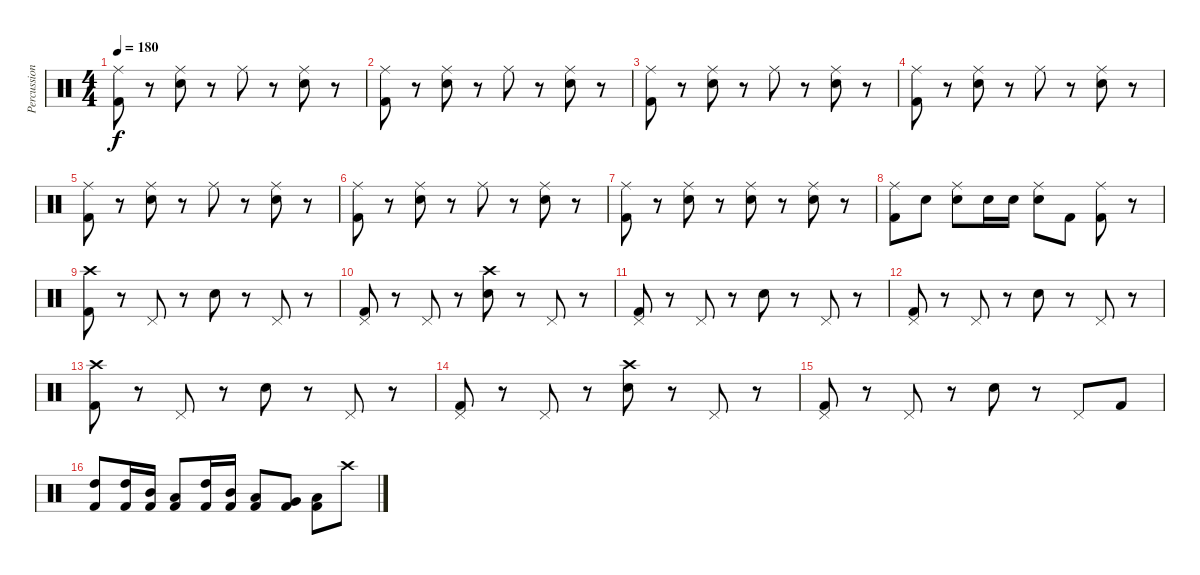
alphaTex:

\track ("Percussion" "Percussion") {instrument percussion}
\staff {score}
\articulation defaults
\ts (4 4)
\tempo 180
\clef neutral
\ks c
("Ride (middle)" "Kick (hit) 2").8{dy f} r.8 ("Ride (middle)" "Snare (hit) 2").8 r.8 "Ride (middle)".8 r.8 ("Ride (middle)" "Snare (hit) 2").8 r.8 |
("Ride (middle)" "Kick (hit) 2").8 r.8 ("Ride (middle)" "Snare (hit) 2").8 r.8 "Ride (middle)".8 r.8 ("Ride (middle)" "Snare (hit) 2").8 r.8 |
("Ride (middle)" "Kick (hit) 2").8 r.8 ("Ride (middle)" "Snare (hit) 2").8 r.8 "Ride (middle)".8 r.8 ("Ride (middle)" "Snare (hit) 2").8 r.8 |
("Ride (middle)" "Kick (hit) 2").8 r.8 ("Ride (middle)" "Snare (hit) 2").8 r.8 "Ride (middle)".8 r.8 ("Ride (middle)" "Snare (hit) 2").8 r.8 |
("Ride (middle)" "Kick (hit) 2").8 r.8 ("Ride (middle)" "Snare (hit) 2").8 r.8 "Ride (middle)".8 r.8 ("Ride (middle)" "Snare (hit) 2").8 r.8 |
("Ride (middle)" "Kick (hit) 2").8 r.8 ("Ride (middle)" "Snare (hit) 2").8 r.8 "Ride (middle)".8 r.8 ("Ride (middle)" "Snare (hit) 2").8 r.8 |
("Ride (middle)" "Kick (hit) 2").8 r.8 ("Ride (middle)" "Snare (hit) 2").8 r.8 ("Ride (middle)" "Snare (hit) 2").8 r.8 ("Ride (middle)" "Snare (hit) 2").8 r.8 |
("Ride (middle)" "Kick (hit) 2").8 "Snare (hit) 2".8 ("Ride (middle)" "Snare (hit) 2").8 "Snare (hit) 2".16 "Snare (hit) 2".16 ("Ride (middle)" "Snare (hit) 2").8 "Kick (hit) 2".8 ("Ride (middle)" "Kick (hit) 2").8 r.8 |
("Crash high (hit)" "Kick (hit) 2").8 r.8 "Pedal Hi-Hat (hit)".8 r.8 "Snare (hit) 2".8 r.8 "Pedal Hi-Hat (hit)".8 r.8 |
("Pedal Hi-Hat (hit)" "Kick (hit) 2").8 r.8 "Pedal Hi-Hat (hit)".8 r.8 ("Crash high (hit)" "Snare (hit) 2").8 r.8 "Pedal Hi-Hat (hit)".8 r.8 |
("Pedal Hi-Hat (hit)" "Kick (hit) 2").8 r.8 "Pedal Hi-Hat (hit)".8 r.8 "Snare (hit) 2".8 r.8 "Pedal Hi-Hat (hit)".8 r.8 |
("Pedal Hi-Hat (hit)" "Kick (hit) 2").8 r.8 "Pedal Hi-Hat (hit)".8 r.8 "Snare (hit) 2".8 r.8 "Pedal Hi-Hat (hit)".8 r.8 |
("Crash high (hit)" "Kick (hit) 2").8 r.8 "Pedal Hi-Hat (hit)".8 r.8 "Snare (hit) 2".8 r.8 "Pedal Hi-Hat (hit)".8 r.8 |
("Pedal Hi-Hat (hit)" "Kick (hit) 2").8 r.8 "Pedal Hi-Hat (hit)".8 r.8 ("Crash high (hit)" "Snare (hit) 2").8 r.8 "Pedal Hi-Hat (hit)".8 r.8 |
("Pedal Hi-Hat (hit)" "Kick (hit) 2").8 r.8 "Pedal Hi-Hat (hit)".8 r.8 "Snare (hit) 2".8 r.8 "Pedal Hi-Hat (hit)".8 "Kick (hit) 2".8 |
("High Tom (hit)" "Kick (hit) 2").8 ("High Tom (hit)" "Kick (hit) 2").16 ("Mid Tom (hit)" "Kick (hit) 2").16 ("Low Tom (hit)" "Kick (hit) 2").8 ("High Tom (hit)" "Kick (hit) 2").16 ("Mid Tom (hit)" "Kick (hit) 2").16 ("Low Tom (hit)" "Kick (hit) 2").8 ("Very Low Tom (hit)" "Kick (hit) 2").8 ("Low Floor Tom (hit)" "Kick (hit) 2").8 "Crash high (hit)".8
